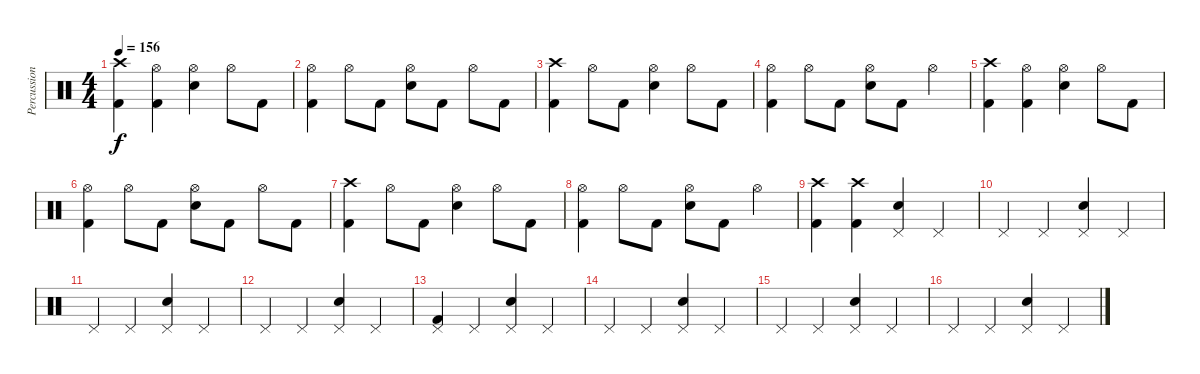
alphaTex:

\track ("Percussions" "Percussion") {instrument percussion}
\staff {score}
\articulation defaults
\ts (4 4)
\tempo 156
\clef neutral
\ks c
("Crash high (hit)" "Kick (hit) 2").4{dy f} ("Hi-Hat (open)" "Kick (hit) 2").4 ("Hi-Hat (open)" "Electric Snare (hit)").4 "Hi-Hat (open)".8 "Kick (hit) 2".8 |
("Hi-Hat (open)" "Kick (hit) 2").4 "Hi-Hat (open)".8 "Kick (hit) 2".8 ("Hi-Hat (open)" "Electric Snare (hit)").8 "Kick (hit) 2".8 "Hi-Hat (open)".8 "Kick (hit) 2".8 |
("Crash high (hit)" "Kick (hit) 2").4 "Hi-Hat (open)".8 "Kick (hit) 2".8 ("Hi-Hat (open)" "Electric Snare (hit)").4 "Hi-Hat (open)".8 "Kick (hit) 2".8 |
("Hi-Hat (open)" "Kick (hit) 2").4 "Hi-Hat (open)".8 "Kick (hit) 2".8 ("Hi-Hat (open)" "Electric Snare (hit)").8 "Kick (hit) 2".8 "Hi-Hat (open)".4 |
("Crash high (hit)" "Kick (hit) 2").4 ("Hi-Hat (open)" "Kick (hit) 2").4 ("Hi-Hat (open)" "Electric Snare (hit)").4 "Hi-Hat (open)".8 "Kick (hit) 2".8 |
("Hi-Hat (open)" "Kick (hit) 2").4 "Hi-Hat (open)".8 "Kick (hit) 2".8 ("Hi-Hat (open)" "Electric Snare (hit)").8 "Kick (hit) 2".8 "Hi-Hat (open)".8 "Kick (hit) 2".8 |
("Crash high (hit)" "Kick (hit) 2").4 "Hi-Hat (open)".8 "Kick (hit) 2".8 ("Hi-Hat (open)" "Electric Snare (hit)").4 "Hi-Hat (open)".8 "Kick (hit) 2".8 |
("Hi-Hat (open)" "Kick (hit) 2").4 "Hi-Hat (open)".8 "Kick (hit) 2".8 ("Hi-Hat (open)" "Electric Snare (hit)").8 "Kick (hit) 2".8 "Hi-Hat (open)".4 |
("Crash high (hit)" "Kick (hit) 2").4 ("Crash high (hit)" "Kick (hit) 2").4 ("Pedal Hi-Hat (hit)" "Electric Snare (hit)").4 "Pedal Hi-Hat (hit)".4 |
"Pedal Hi-Hat (hit)".4 "Pedal Hi-Hat (hit)".4 ("Pedal Hi-Hat (hit)" "Electric Snare (hit)").4 "Pedal Hi-Hat (hit)".4 |
"Pedal Hi-Hat (hit)".4 "Pedal Hi-Hat (hit)".4 ("Pedal Hi-Hat (hit)" "Electric Snare (hit)").4 "Pedal Hi-Hat (hit)".4 |
"Pedal Hi-Hat (hit)".4 "Pedal Hi-Hat (hit)".4 ("Pedal Hi-Hat (hit)" "Electric Snare (hit)").4 "Pedal Hi-Hat (hit)".4 |
("Pedal Hi-Hat (hit)" "Kick (hit) 2").4 "Pedal Hi-Hat (hit)".4 ("Pedal Hi-Hat (hit)" "Electric Snare (hit)").4 "Pedal Hi-Hat (hit)".4 |
"Pedal Hi-Hat (hit)".4 "Pedal Hi-Hat (hit)".4 ("Pedal Hi-Hat (hit)" "Electric Snare (hit)").4 "Pedal Hi-Hat (hit)".4 |
"Pedal Hi-Hat (hit)".4 "Pedal Hi-Hat (hit)".4 ("Pedal Hi-Hat (hit)" "Electric Snare (hit)").4 "Pedal Hi-Hat (hit)".4 |
"Pedal Hi-Hat (hit)".4 "Pedal Hi-Hat (hit)".4 ("Pedal Hi-Hat (hit)" "Electric Snare (hit)").4 "Pedal Hi-Hat (hit)".4
